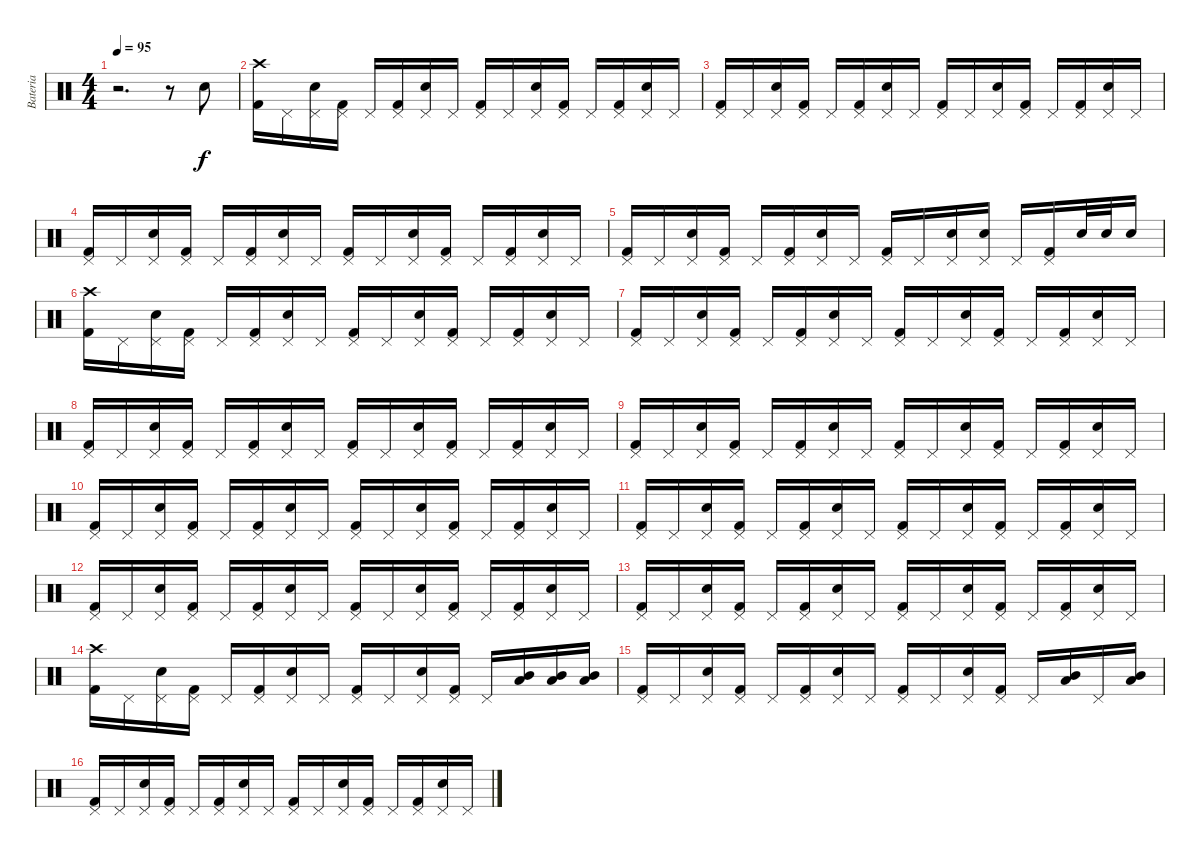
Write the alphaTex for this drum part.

\track ("Bateria" "Bateria") {instrument percussion}
\staff {score}
\articulation defaults
\ts (4 4)
\tempo 95
\clef neutral
\ks c
r.2{d dy f} r.8 "Electric Snare (hit)".8 |
("Crash high (hit)" "Kick (hit) 2").16 "Pedal Hi-Hat (hit)".16 ("Pedal Hi-Hat (hit)" "Electric Snare (hit)").16 ("Pedal Hi-Hat (hit)" "Kick (hit) 2").16 "Pedal Hi-Hat (hit)".16 ("Pedal Hi-Hat (hit)" "Kick (hit) 2").16 ("Pedal Hi-Hat (hit)" "Electric Snare (hit)").16 "Pedal Hi-Hat (hit)".16 ("Pedal Hi-Hat (hit)" "Kick (hit) 2").16 "Pedal Hi-Hat (hit)".16 ("Pedal Hi-Hat (hit)" "Electric Snare (hit)").16 ("Pedal Hi-Hat (hit)" "Kick (hit) 2").16 "Pedal Hi-Hat (hit)".16 ("Pedal Hi-Hat (hit)" "Kick (hit) 2").16 ("Pedal Hi-Hat (hit)" "Electric Snare (hit)").16 "Pedal Hi-Hat (hit)".16 |
("Pedal Hi-Hat (hit)" "Kick (hit) 2").16 "Pedal Hi-Hat (hit)".16 ("Pedal Hi-Hat (hit)" "Electric Snare (hit)").16 ("Pedal Hi-Hat (hit)" "Kick (hit) 2").16 "Pedal Hi-Hat (hit)".16 ("Pedal Hi-Hat (hit)" "Kick (hit) 2").16 ("Pedal Hi-Hat (hit)" "Electric Snare (hit)").16 "Pedal Hi-Hat (hit)".16 ("Pedal Hi-Hat (hit)" "Kick (hit) 2").16 "Pedal Hi-Hat (hit)".16 ("Pedal Hi-Hat (hit)" "Electric Snare (hit)").16 ("Pedal Hi-Hat (hit)" "Kick (hit) 2").16 "Pedal Hi-Hat (hit)".16 ("Pedal Hi-Hat (hit)" "Kick (hit) 2").16 ("Pedal Hi-Hat (hit)" "Electric Snare (hit)").16 "Pedal Hi-Hat (hit)".16 |
("Pedal Hi-Hat (hit)" "Kick (hit) 2").16 "Pedal Hi-Hat (hit)".16 ("Pedal Hi-Hat (hit)" "Electric Snare (hit)").16 ("Pedal Hi-Hat (hit)" "Kick (hit) 2").16 "Pedal Hi-Hat (hit)".16 ("Pedal Hi-Hat (hit)" "Kick (hit) 2").16 ("Pedal Hi-Hat (hit)" "Electric Snare (hit)").16 "Pedal Hi-Hat (hit)".16 ("Pedal Hi-Hat (hit)" "Kick (hit) 2").16 "Pedal Hi-Hat (hit)".16 ("Pedal Hi-Hat (hit)" "Electric Snare (hit)").16 ("Pedal Hi-Hat (hit)" "Kick (hit) 2").16 "Pedal Hi-Hat (hit)".16 ("Pedal Hi-Hat (hit)" "Kick (hit) 2").16 ("Pedal Hi-Hat (hit)" "Electric Snare (hit)").16 "Pedal Hi-Hat (hit)".16 |
("Pedal Hi-Hat (hit)" "Kick (hit) 2").16 "Pedal Hi-Hat (hit)".16 ("Pedal Hi-Hat (hit)" "Electric Snare (hit)").16 ("Pedal Hi-Hat (hit)" "Kick (hit) 2").16 "Pedal Hi-Hat (hit)".16 ("Pedal Hi-Hat (hit)" "Kick (hit) 2").16 ("Pedal Hi-Hat (hit)" "Electric Snare (hit)").16 "Pedal Hi-Hat (hit)".16 ("Pedal Hi-Hat (hit)" "Kick (hit) 2").16 "Pedal Hi-Hat (hit)".16 ("Pedal Hi-Hat (hit)" "Electric Snare (hit)").16 ("Pedal Hi-Hat (hit)" "Electric Snare (hit)").16 "Pedal Hi-Hat (hit)".16 ("Pedal Hi-Hat (hit)" "Kick (hit) 2").16 "Electric Snare (hit)".32 "Electric Snare (hit)".32 "Electric Snare (hit)".16 |
("Crash high (hit)" "Kick (hit) 2").16 "Pedal Hi-Hat (hit)".16 ("Pedal Hi-Hat (hit)" "Electric Snare (hit)").16 ("Pedal Hi-Hat (hit)" "Kick (hit) 2").16 "Pedal Hi-Hat (hit)".16 ("Pedal Hi-Hat (hit)" "Kick (hit) 2").16 ("Pedal Hi-Hat (hit)" "Electric Snare (hit)").16 "Pedal Hi-Hat (hit)".16 ("Pedal Hi-Hat (hit)" "Kick (hit) 2").16 "Pedal Hi-Hat (hit)".16 ("Pedal Hi-Hat (hit)" "Electric Snare (hit)").16 ("Pedal Hi-Hat (hit)" "Kick (hit) 2").16 "Pedal Hi-Hat (hit)".16 ("Pedal Hi-Hat (hit)" "Kick (hit) 2").16 ("Pedal Hi-Hat (hit)" "Electric Snare (hit)").16 "Pedal Hi-Hat (hit)".16 |
("Pedal Hi-Hat (hit)" "Kick (hit) 2").16 "Pedal Hi-Hat (hit)".16 ("Pedal Hi-Hat (hit)" "Electric Snare (hit)").16 ("Pedal Hi-Hat (hit)" "Kick (hit) 2").16 "Pedal Hi-Hat (hit)".16 ("Pedal Hi-Hat (hit)" "Kick (hit) 2").16 ("Pedal Hi-Hat (hit)" "Electric Snare (hit)").16 "Pedal Hi-Hat (hit)".16 ("Pedal Hi-Hat (hit)" "Kick (hit) 2").16 "Pedal Hi-Hat (hit)".16 ("Pedal Hi-Hat (hit)" "Electric Snare (hit)").16 ("Pedal Hi-Hat (hit)" "Kick (hit) 2").16 "Pedal Hi-Hat (hit)".16 ("Pedal Hi-Hat (hit)" "Kick (hit) 2").16 ("Pedal Hi-Hat (hit)" "Electric Snare (hit)").16 "Pedal Hi-Hat (hit)".16 |
("Pedal Hi-Hat (hit)" "Kick (hit) 2").16 "Pedal Hi-Hat (hit)".16 ("Pedal Hi-Hat (hit)" "Electric Snare (hit)").16 ("Pedal Hi-Hat (hit)" "Kick (hit) 2").16 "Pedal Hi-Hat (hit)".16 ("Pedal Hi-Hat (hit)" "Kick (hit) 2").16 ("Pedal Hi-Hat (hit)" "Electric Snare (hit)").16 "Pedal Hi-Hat (hit)".16 ("Pedal Hi-Hat (hit)" "Kick (hit) 2").16 "Pedal Hi-Hat (hit)".16 ("Pedal Hi-Hat (hit)" "Electric Snare (hit)").16 ("Pedal Hi-Hat (hit)" "Kick (hit) 2").16 "Pedal Hi-Hat (hit)".16 ("Pedal Hi-Hat (hit)" "Kick (hit) 2").16 ("Pedal Hi-Hat (hit)" "Electric Snare (hit)").16 "Pedal Hi-Hat (hit)".16 |
("Pedal Hi-Hat (hit)" "Kick (hit) 2").16 "Pedal Hi-Hat (hit)".16 ("Pedal Hi-Hat (hit)" "Electric Snare (hit)").16 ("Pedal Hi-Hat (hit)" "Kick (hit) 2").16 "Pedal Hi-Hat (hit)".16 ("Pedal Hi-Hat (hit)" "Kick (hit) 2").16 ("Pedal Hi-Hat (hit)" "Electric Snare (hit)").16 "Pedal Hi-Hat (hit)".16 ("Pedal Hi-Hat (hit)" "Kick (hit) 2").16 "Pedal Hi-Hat (hit)".16 ("Pedal Hi-Hat (hit)" "Electric Snare (hit)").16 ("Pedal Hi-Hat (hit)" "Kick (hit) 2").16 "Pedal Hi-Hat (hit)".16 ("Pedal Hi-Hat (hit)" "Kick (hit) 2").16 ("Pedal Hi-Hat (hit)" "Electric Snare (hit)").16 "Pedal Hi-Hat (hit)".16 |
("Pedal Hi-Hat (hit)" "Kick (hit) 2").16 "Pedal Hi-Hat (hit)".16 ("Pedal Hi-Hat (hit)" "Electric Snare (hit)").16 ("Pedal Hi-Hat (hit)" "Kick (hit) 2").16 "Pedal Hi-Hat (hit)".16 ("Pedal Hi-Hat (hit)" "Kick (hit) 2").16 ("Pedal Hi-Hat (hit)" "Electric Snare (hit)").16 "Pedal Hi-Hat (hit)".16 ("Pedal Hi-Hat (hit)" "Kick (hit) 2").16 "Pedal Hi-Hat (hit)".16 ("Pedal Hi-Hat (hit)" "Electric Snare (hit)").16 ("Pedal Hi-Hat (hit)" "Kick (hit) 2").16 "Pedal Hi-Hat (hit)".16 ("Pedal Hi-Hat (hit)" "Kick (hit) 2").16 ("Pedal Hi-Hat (hit)" "Electric Snare (hit)").16 "Pedal Hi-Hat (hit)".16 |
("Pedal Hi-Hat (hit)" "Kick (hit) 2").16 "Pedal Hi-Hat (hit)".16 ("Pedal Hi-Hat (hit)" "Electric Snare (hit)").16 ("Pedal Hi-Hat (hit)" "Kick (hit) 2").16 "Pedal Hi-Hat (hit)".16 ("Pedal Hi-Hat (hit)" "Kick (hit) 2").16 ("Pedal Hi-Hat (hit)" "Electric Snare (hit)").16 "Pedal Hi-Hat (hit)".16 ("Pedal Hi-Hat (hit)" "Kick (hit) 2").16 "Pedal Hi-Hat (hit)".16 ("Pedal Hi-Hat (hit)" "Electric Snare (hit)").16 ("Pedal Hi-Hat (hit)" "Kick (hit) 2").16 "Pedal Hi-Hat (hit)".16 ("Pedal Hi-Hat (hit)" "Kick (hit) 2").16 ("Pedal Hi-Hat (hit)" "Electric Snare (hit)").16 "Pedal Hi-Hat (hit)".16 |
("Pedal Hi-Hat (hit)" "Kick (hit) 2").16 "Pedal Hi-Hat (hit)".16 ("Pedal Hi-Hat (hit)" "Electric Snare (hit)").16 ("Pedal Hi-Hat (hit)" "Kick (hit) 2").16 "Pedal Hi-Hat (hit)".16 ("Pedal Hi-Hat (hit)" "Kick (hit) 2").16 ("Pedal Hi-Hat (hit)" "Electric Snare (hit)").16 "Pedal Hi-Hat (hit)".16 ("Pedal Hi-Hat (hit)" "Kick (hit) 2").16 "Pedal Hi-Hat (hit)".16 ("Pedal Hi-Hat (hit)" "Electric Snare (hit)").16 ("Pedal Hi-Hat (hit)" "Kick (hit) 2").16 "Pedal Hi-Hat (hit)".16 ("Pedal Hi-Hat (hit)" "Kick (hit) 2").16 ("Pedal Hi-Hat (hit)" "Electric Snare (hit)").16 "Pedal Hi-Hat (hit)".16 |
("Pedal Hi-Hat (hit)" "Kick (hit) 2").16 "Pedal Hi-Hat (hit)".16 ("Pedal Hi-Hat (hit)" "Electric Snare (hit)").16 ("Pedal Hi-Hat (hit)" "Kick (hit) 2").16 "Pedal Hi-Hat (hit)".16 ("Pedal Hi-Hat (hit)" "Kick (hit) 2").16 ("Pedal Hi-Hat (hit)" "Electric Snare (hit)").16 "Pedal Hi-Hat (hit)".16 ("Pedal Hi-Hat (hit)" "Kick (hit) 2").16 "Pedal Hi-Hat (hit)".16 ("Pedal Hi-Hat (hit)" "Electric Snare (hit)").16 ("Pedal Hi-Hat (hit)" "Kick (hit) 2").16 "Pedal Hi-Hat (hit)".16 ("Pedal Hi-Hat (hit)" "Kick (hit) 2").16 ("Pedal Hi-Hat (hit)" "Electric Snare (hit)").16 "Pedal Hi-Hat (hit)".16 |
("Crash high (hit)" "Kick (hit) 2").16 "Pedal Hi-Hat (hit)".16 ("Pedal Hi-Hat (hit)" "Electric Snare (hit)").16 ("Pedal Hi-Hat (hit)" "Kick (hit) 2").16 "Pedal Hi-Hat (hit)".16 ("Pedal Hi-Hat (hit)" "Kick (hit) 2").16 ("Pedal Hi-Hat (hit)" "Electric Snare (hit)").16 "Pedal Hi-Hat (hit)".16 ("Pedal Hi-Hat (hit)" "Kick (hit) 2").16 "Pedal Hi-Hat (hit)".16 ("Pedal Hi-Hat (hit)" "Electric Snare (hit)").16 ("Pedal Hi-Hat (hit)" "Kick (hit) 2").16 "Pedal Hi-Hat (hit)".16 ("Low Tom (hit)" "Mid Tom (hit)").16 ("Low Tom (hit)" "Mid Tom (hit)").16 ("Low Tom (hit)" "Mid Tom (hit)").16 |
("Pedal Hi-Hat (hit)" "Kick (hit) 2").16 "Pedal Hi-Hat (hit)".16 ("Pedal Hi-Hat (hit)" "Electric Snare (hit)").16 ("Pedal Hi-Hat (hit)" "Kick (hit) 2").16 "Pedal Hi-Hat (hit)".16 ("Pedal Hi-Hat (hit)" "Kick (hit) 2").16 ("Pedal Hi-Hat (hit)" "Electric Snare (hit)").16 "Pedal Hi-Hat (hit)".16 ("Pedal Hi-Hat (hit)" "Kick (hit) 2").16 "Pedal Hi-Hat (hit)".16 ("Pedal Hi-Hat (hit)" "Electric Snare (hit)").16 ("Pedal Hi-Hat (hit)" "Kick (hit) 2").16 "Pedal Hi-Hat (hit)".16 ("Low Tom (hit)" "Mid Tom (hit)").16 "Pedal Hi-Hat (hit)".16 ("Low Tom (hit)" "Mid Tom (hit)").16 |
("Pedal Hi-Hat (hit)" "Kick (hit) 2").16 "Pedal Hi-Hat (hit)".16 ("Pedal Hi-Hat (hit)" "Electric Snare (hit)").16 ("Pedal Hi-Hat (hit)" "Kick (hit) 2").16 "Pedal Hi-Hat (hit)".16 ("Pedal Hi-Hat (hit)" "Kick (hit) 2").16 ("Pedal Hi-Hat (hit)" "Electric Snare (hit)").16 "Pedal Hi-Hat (hit)".16 ("Pedal Hi-Hat (hit)" "Kick (hit) 2").16 "Pedal Hi-Hat (hit)".16 ("Pedal Hi-Hat (hit)" "Electric Snare (hit)").16 ("Pedal Hi-Hat (hit)" "Kick (hit) 2").16 "Pedal Hi-Hat (hit)".16 ("Pedal Hi-Hat (hit)" "Kick (hit) 2").16 ("Pedal Hi-Hat (hit)" "Electric Snare (hit)").16 "Pedal Hi-Hat (hit)".16
